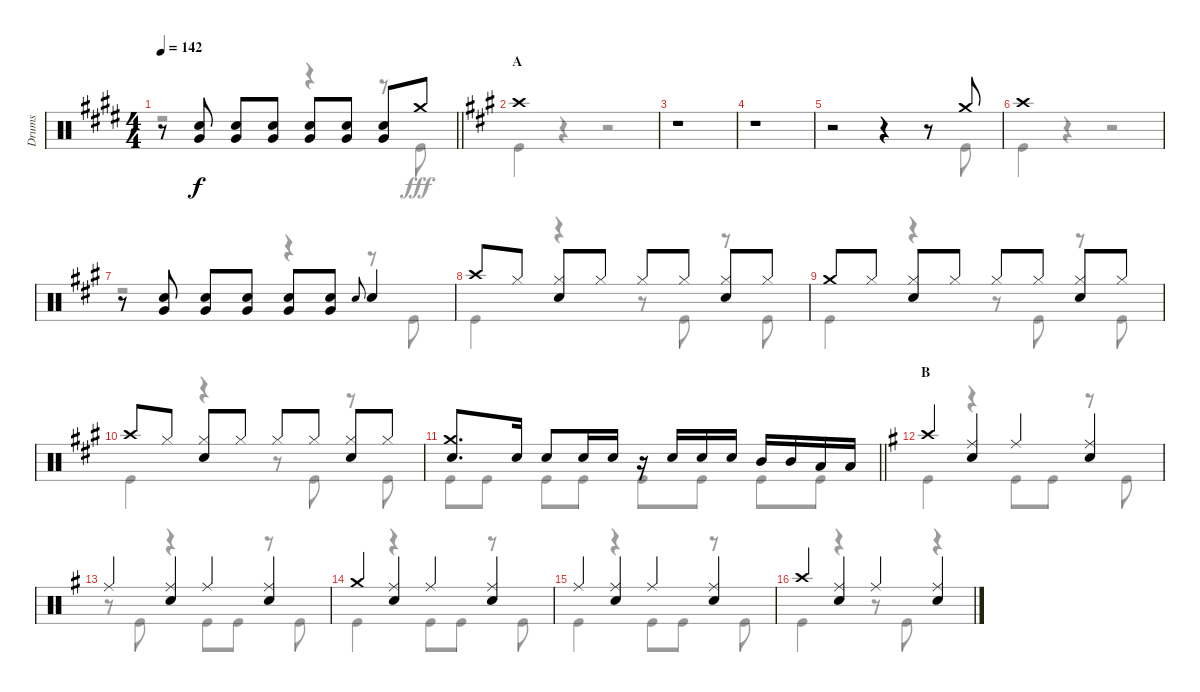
\track ("Drums" "Drums") {instrument percussion}
\staff {score}
\articulation defaults
\voice
\ts (4 4)
\tempo 142
\clef neutral
\barLineRight lightlight
\ks e
r.8{dy f} ("Snare (hit) 2" "Very Low Tom (hit)").8 ("Snare (hit) 2" "Very Low Tom (hit)").8 ("Snare (hit) 2" "Very Low Tom (hit)").8 ("Snare (hit) 2" "Very Low Tom (hit)").8 ("Snare (hit) 2" "Very Low Tom (hit)").8 ("Snare (hit) 2" "Very Low Tom (hit)").8 "Crash medium (hit)".8 |
\section ("" "A")
\ks a "Crash high (hit)".1
|
r.1 |
r.1 |
r.2 r.4 r.8 "Crash medium (hit)".8 |
"Crash high (hit)".1 |
r.8 ("Snare (hit) 2" "Very Low Tom (hit)").8 ("Snare (hit) 2" "Very Low Tom (hit)").8 ("Snare (hit) 2" "Very Low Tom (hit)").8 ("Snare (hit) 2" "Very Low Tom (hit)").8 ("Snare (hit) 2" "Very Low Tom (hit)").8 "Snare (hit) 2".8{gr onbeat} "Snare (hit) 2".4 |
"Crash high (hit)".8 "Hi-Hat (closed)".8 ("Hi-Hat (closed)" "Snare (hit) 2").8 "Hi-Hat (closed)".8 "Hi-Hat (closed)".8 "Hi-Hat (closed)".8 ("Hi-Hat (closed)" "Snare (hit) 2").8 "Hi-Hat (closed)".8 |
"Crash medium (hit)".8 "Hi-Hat (closed)".8 ("Hi-Hat (closed)" "Snare (hit) 2").8 "Hi-Hat (closed)".8 "Hi-Hat (closed)".8 "Hi-Hat (closed)".8 ("Hi-Hat (closed)" "Snare (hit) 2").8 "Hi-Hat (closed)".8 |
"Crash high (hit)".8 "Hi-Hat (closed)".8 ("Hi-Hat (closed)" "Snare (hit) 2").8 "Hi-Hat (closed)".8 "Hi-Hat (closed)".8 "Hi-Hat (closed)".8 ("Hi-Hat (closed)" "Snare (hit) 2").8 "Hi-Hat (closed)".8 |
\barLineRight lightlight
("Crash medium (hit)" "Snare (hit) 2").8{d} "Snare (hit) 2".16 "Snare (hit) 2".8 "Snare (hit) 2".16 "Snare (hit) 2".16 r.16 "Snare (hit) 2".16 "Snare (hit) 2".16 "Snare (hit) 2".16 "Mid Tom (hit)".16 "Mid Tom (hit)".16 "Low Tom (hit)".16 "Low Tom (hit)".16 |
\section ("" "B")
\ks g "Crash high (hit)".4
("Ride (middle)" "Snare (hit) 2").4 "Ride (middle)".4 ("Ride (middle)" "Snare (hit) 2").4 |
"Ride (middle)".4 ("Ride (middle)" "Snare (hit) 2").4 "Ride (middle)".4 ("Ride (middle)" "Snare (hit) 2").4 |
"Crash medium (hit)".4 ("Ride (middle)" "Snare (hit) 2").4 "Ride (middle)".4 ("Ride (middle)" "Snare (hit) 2").4 |
"Ride (middle)".4 ("Ride (middle)" "Snare (hit) 2").4 "Ride (middle)".4 ("Ride (middle)" "Snare (hit) 2").4 |
"Crash high (hit)".4 ("Ride (middle)" "Snare (hit) 2").4 "Ride (middle)".4 ("Ride (middle)" "Snare (hit) 2").4
\voice
\clef neutral
\ottava regular
\simile none
\barLineRight lightlight
\ks e
r.2{dy fff} r.4 r.8 "Kick (hit)".8 |
\ks a "Kick (hit)".4
r.4 r.2 |
r.1 |
r.1 |
r.2 r.4 r.8 "Kick (hit)".8 |
"Kick (hit)".4 r.4 r.2 |
r.2 r.4 r.8 "Kick (hit)".8 |
"Kick (hit)".4 r.4 r.8 "Kick (hit)".8 r.8 "Kick (hit)".8 |
"Kick (hit)".4 r.4 r.8 "Kick (hit)".8 r.8 "Kick (hit)".8 |
"Kick (hit)".4 r.4 r.8 "Kick (hit)".8 r.8 "Kick (hit)".8 |
\barLineRight lightlight "Kick (hit)".8 "Kick (hit)".8 "Kick (hit)".8 "Kick (hit)".8 "Kick (hit)".8 "Kick (hit)".8 "Kick (hit)".8 "Kick (hit)".8
|
\ks g "Kick (hit)".4
r.4 "Kick (hit)".8 "Kick (hit)".8 r.8 "Kick (hit)".8 |
r.8 "Kick (hit)".8 r.4 "Kick (hit)".8 "Kick (hit)".8 r.8 "Kick (hit)".8 |
"Kick (hit)".4 r.4 "Kick (hit)".8 "Kick (hit)".8 r.8 "Kick (hit)".8 |
"Kick (hit)".4 r.4 "Kick (hit)".8 "Kick (hit)".8 r.8 "Kick (hit)".8 |
"Kick (hit)".4 r.4 r.8 "Kick (hit)".8 r.4
